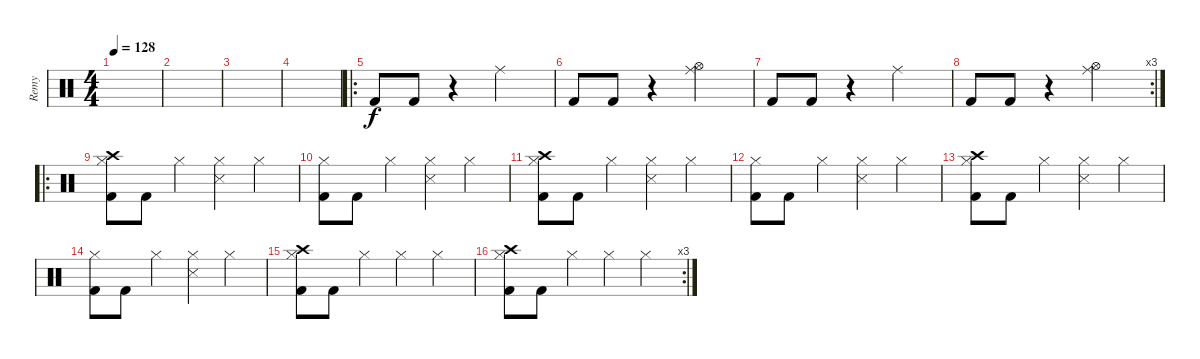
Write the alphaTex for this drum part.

\track ("Remy" "Remy") {instrument percussion}
\staff {score}
\articulation defaults
\ts (4 4)
\tempo 128
\clef neutral
\ks c
|
|
|
|
\ro "Kick (hit) 2".8 "Kick (hit) 2".8
r.4 "Ride (middle)".2 |
"Kick (hit) 2".8 "Kick (hit) 2".8 r.4 ("Ride (middle)" "Hi-Hat (open)").2 |
"Kick (hit) 2".8 "Kick (hit) 2".8 r.4 "Ride (middle)".2 |
\rc 3 "Kick (hit) 2".8 "Kick (hit) 2".8
r.4 ("Ride (middle)" "Hi-Hat (open)").2 |
\ro
("Kick (hit) 2" "Hi-Hat (closed)" "Crash high (hit)").8 "Kick (hit) 2".8 "Hi-Hat (closed)".4 ("Snare (side stick) 3" "Hi-Hat (closed)").4 "Hi-Hat (closed)".4 |
("Kick (hit) 2" "Hi-Hat (closed)").8 "Kick (hit) 2".8 "Hi-Hat (closed)".4 ("Snare (side stick) 3" "Hi-Hat (closed)").4 "Hi-Hat (closed)".4 |
("Kick (hit) 2" "Hi-Hat (closed)" "Crash high (hit)").8 "Kick (hit) 2".8 "Hi-Hat (closed)".4 ("Snare (side stick) 3" "Hi-Hat (closed)").4 "Hi-Hat (closed)".4 |
("Kick (hit) 2" "Hi-Hat (closed)").8 "Kick (hit) 2".8 "Hi-Hat (closed)".4 ("Snare (side stick) 3" "Hi-Hat (closed)").4 "Hi-Hat (closed)".4 |
("Kick (hit) 2" "Hi-Hat (closed)" "Crash high (hit)").8 "Kick (hit) 2".8 "Hi-Hat (closed)".4 ("Snare (side stick) 3" "Hi-Hat (closed)").4 "Hi-Hat (closed)".4 |
("Kick (hit) 2" "Hi-Hat (closed)").8 "Kick (hit) 2".8 "Hi-Hat (closed)".4 ("Snare (side stick) 3" "Hi-Hat (closed)").4 "Hi-Hat (closed)".4 |
("Kick (hit) 2" "Hi-Hat (closed)" "Crash high (hit)").8 "Kick (hit) 2".8 "Hi-Hat (closed)".4 "Hi-Hat (closed)".4 "Hi-Hat (closed)".4 |
\rc 3
("Kick (hit) 2" "Hi-Hat (closed)" "Crash high (hit)").8 "Kick (hit) 2".8 "Hi-Hat (closed)".4 "Hi-Hat (closed)".4 "Hi-Hat (closed)".4
